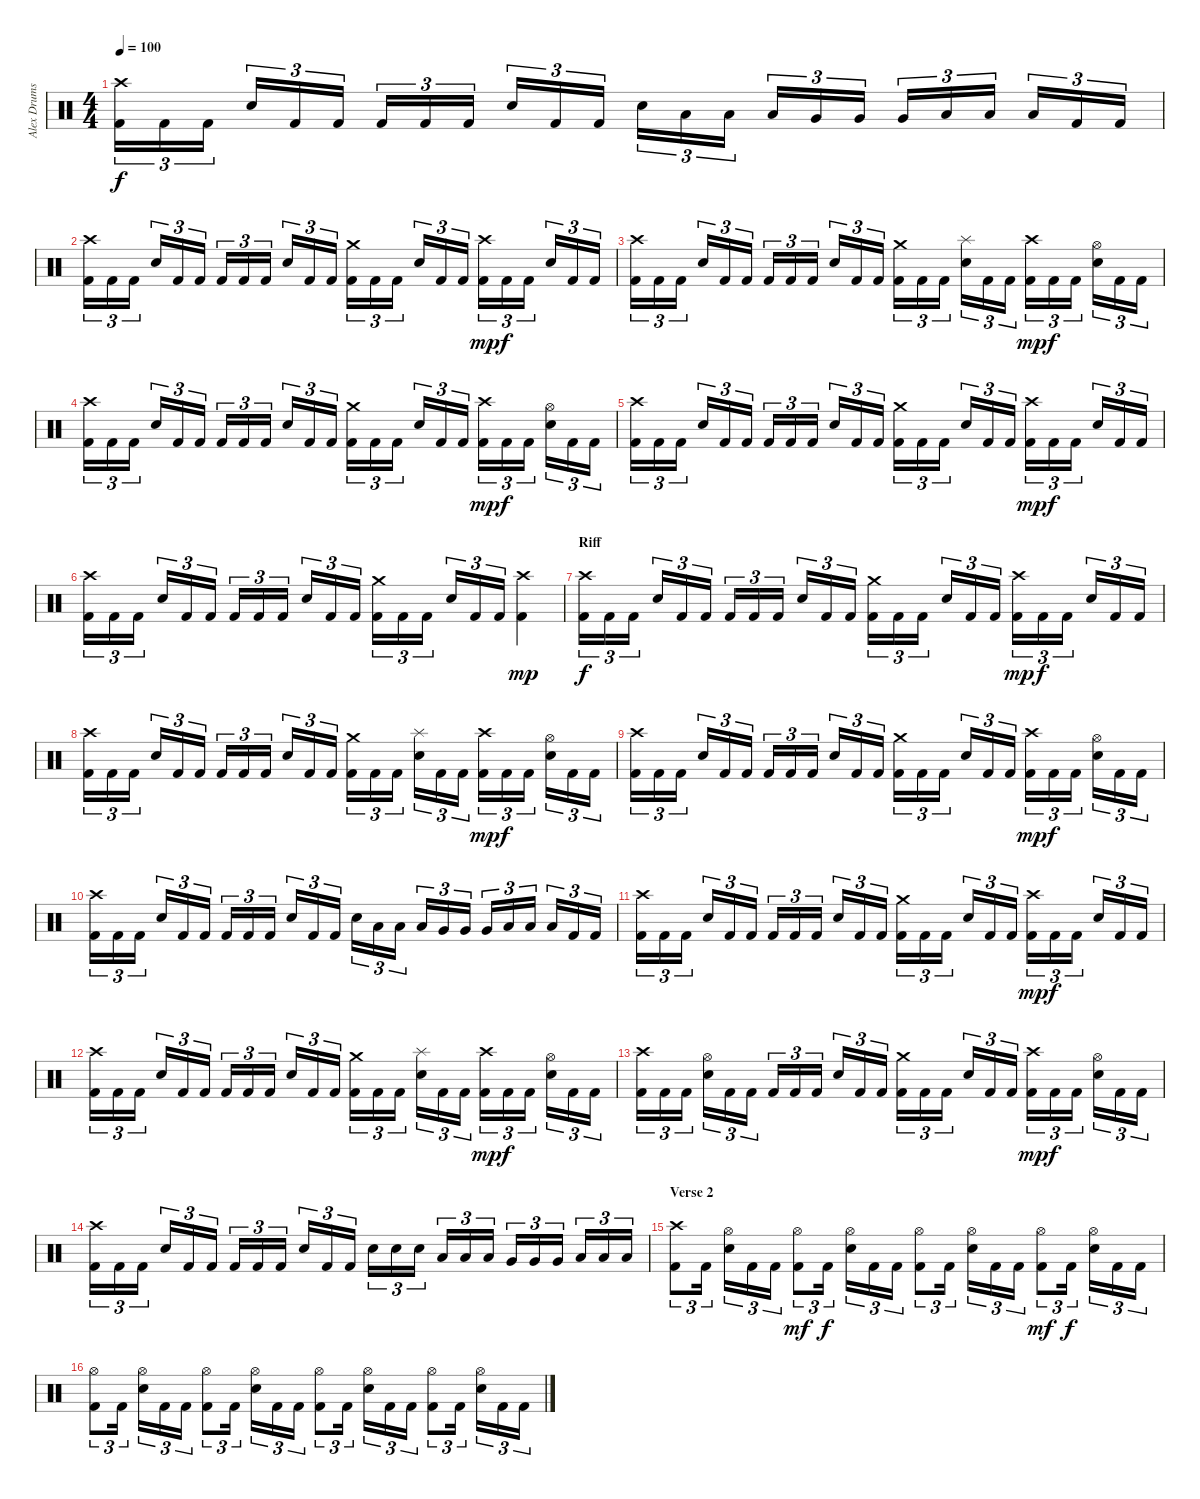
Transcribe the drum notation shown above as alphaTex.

\track ("Alex Drums" "Alex Drums") {instrument percussion}
\staff {score}
\articulation defaults
\ts (4 4)
\tempo 100
\clef neutral
\ks c
("Crash high (hit)" "Kick (hit) 2").16{tu (3 2) dy f} "Kick (hit) 2".16{tu (3 2)} "Kick (hit) 2".16{tu (3 2)} "Electric Snare (hit)".16{tu (3 2)} "Kick (hit) 2".16{tu (3 2)} "Kick (hit) 2".16{tu (3 2)} "Kick (hit) 2".16{tu (3 2)} "Kick (hit) 2".16{tu (3 2)} "Kick (hit) 2".16{tu (3 2)} "Electric Snare (hit)".16{tu (3 2)} "Kick (hit) 2".16{tu (3 2)} "Kick (hit) 2".16{tu (3 2)} "Electric Snare (hit)".16{tu (3 2)} "Low Tom (hit)".16{tu (3 2)} "Low Tom (hit)".16{tu (3 2)} "Low Tom (hit)".16{tu (3 2)} "Very Low Tom (hit)".16{tu (3 2)} "Very Low Tom (hit)".16{tu (3 2)} "Very Low Tom (hit)".16{tu (3 2)} "Low Floor Tom (hit)".16{tu (3 2)} "Low Floor Tom (hit)".16{tu (3 2)} "Low Floor Tom (hit)".16{tu (3 2)} "Kick (hit) 2".16{tu (3 2)} "Kick (hit) 2".16{tu (3 2)} |
("Crash high (hit)" "Kick (hit) 2").16{tu (3 2)} "Kick (hit) 2".16{tu (3 2)} "Kick (hit) 2".16{tu (3 2)} "Electric Snare (hit)".16{tu (3 2)} "Kick (hit) 2".16{tu (3 2)} "Kick (hit) 2".16{tu (3 2)} "Kick (hit) 2".16{tu (3 2)} "Kick (hit) 2".16{tu (3 2)} "Kick (hit) 2".16{tu (3 2)} "Electric Snare (hit)".16{tu (3 2)} "Kick (hit) 2".16{tu (3 2)} "Kick (hit) 2".16{tu (3 2)} ("Crash medium (hit)" "Kick (hit) 2").16{tu (3 2)} "Kick (hit) 2".16{tu (3 2)} "Kick (hit) 2".16{tu (3 2)} "Electric Snare (hit)".16{tu (3 2)} "Kick (hit) 2".16{tu (3 2)} "Kick (hit) 2".16{tu (3 2)} ("Crash high (hit)" "Kick (hit) 2").16{tu (3 2) dy mp} "Kick (hit) 2".16{tu (3 2) dy f} "Kick (hit) 2".16{tu (3 2)} "Electric Snare (hit)".16{tu (3 2)} "Kick (hit) 2".16{tu (3 2)} "Kick (hit) 2".16{tu (3 2)} |
("Crash high (hit)" "Kick (hit) 2").16{tu (3 2)} "Kick (hit) 2".16{tu (3 2)} "Kick (hit) 2".16{tu (3 2)} "Electric Snare (hit)".16{tu (3 2)} "Kick (hit) 2".16{tu (3 2)} "Kick (hit) 2".16{tu (3 2)} "Kick (hit) 2".16{tu (3 2)} "Kick (hit) 2".16{tu (3 2)} "Kick (hit) 2".16{tu (3 2)} "Electric Snare (hit)".16{tu (3 2)} "Kick (hit) 2".16{tu (3 2)} "Kick (hit) 2".16{tu (3 2)} ("Crash medium (hit)" "Kick (hit) 2").16{tu (3 2)} "Kick (hit) 2".16{tu (3 2)} "Kick (hit) 2".16{tu (3 2)} ("Splash (hit)" "Electric Snare (hit)").16{tu (3 2)} "Kick (hit) 2".16{tu (3 2)} "Kick (hit) 2".16{tu (3 2)} ("Crash high (hit)" "Kick (hit) 2").16{tu (3 2) dy mp} "Kick (hit) 2".16{tu (3 2) dy f} "Kick (hit) 2".16{tu (3 2)} ("Hi-Hat (open)" "Electric Snare (hit)").16{tu (3 2)} "Kick (hit) 2".16{tu (3 2)} "Kick (hit) 2".16{tu (3 2)} |
("Crash high (hit)" "Kick (hit) 2").16{tu (3 2)} "Kick (hit) 2".16{tu (3 2)} "Kick (hit) 2".16{tu (3 2)} "Electric Snare (hit)".16{tu (3 2)} "Kick (hit) 2".16{tu (3 2)} "Kick (hit) 2".16{tu (3 2)} "Kick (hit) 2".16{tu (3 2)} "Kick (hit) 2".16{tu (3 2)} "Kick (hit) 2".16{tu (3 2)} "Electric Snare (hit)".16{tu (3 2)} "Kick (hit) 2".16{tu (3 2)} "Kick (hit) 2".16{tu (3 2)} ("Crash medium (hit)" "Kick (hit) 2").16{tu (3 2)} "Kick (hit) 2".16{tu (3 2)} "Kick (hit) 2".16{tu (3 2)} "Electric Snare (hit)".16{tu (3 2)} "Kick (hit) 2".16{tu (3 2)} "Kick (hit) 2".16{tu (3 2)} ("Crash high (hit)" "Kick (hit) 2").16{tu (3 2) dy mp} "Kick (hit) 2".16{tu (3 2) dy f} "Kick (hit) 2".16{tu (3 2)} ("Hi-Hat (open)" "Electric Snare (hit)").16{tu (3 2)} "Kick (hit) 2".16{tu (3 2)} "Kick (hit) 2".16{tu (3 2)} |
("Crash high (hit)" "Kick (hit) 2").16{tu (3 2)} "Kick (hit) 2".16{tu (3 2)} "Kick (hit) 2".16{tu (3 2)} "Electric Snare (hit)".16{tu (3 2)} "Kick (hit) 2".16{tu (3 2)} "Kick (hit) 2".16{tu (3 2)} "Kick (hit) 2".16{tu (3 2)} "Kick (hit) 2".16{tu (3 2)} "Kick (hit) 2".16{tu (3 2)} "Electric Snare (hit)".16{tu (3 2)} "Kick (hit) 2".16{tu (3 2)} "Kick (hit) 2".16{tu (3 2)} ("Crash medium (hit)" "Kick (hit) 2").16{tu (3 2)} "Kick (hit) 2".16{tu (3 2)} "Kick (hit) 2".16{tu (3 2)} "Electric Snare (hit)".16{tu (3 2)} "Kick (hit) 2".16{tu (3 2)} "Kick (hit) 2".16{tu (3 2)} ("Crash high (hit)" "Kick (hit) 2").16{tu (3 2) dy mp} "Kick (hit) 2".16{tu (3 2) dy f} "Kick (hit) 2".16{tu (3 2)} "Electric Snare (hit)".16{tu (3 2)} "Kick (hit) 2".16{tu (3 2)} "Kick (hit) 2".16{tu (3 2)} |
("Crash high (hit)" "Kick (hit) 2").16{tu (3 2)} "Kick (hit) 2".16{tu (3 2)} "Kick (hit) 2".16{tu (3 2)} "Electric Snare (hit)".16{tu (3 2)} "Kick (hit) 2".16{tu (3 2)} "Kick (hit) 2".16{tu (3 2)} "Kick (hit) 2".16{tu (3 2)} "Kick (hit) 2".16{tu (3 2)} "Kick (hit) 2".16{tu (3 2)} "Electric Snare (hit)".16{tu (3 2)} "Kick (hit) 2".16{tu (3 2)} "Kick (hit) 2".16{tu (3 2)} ("Crash medium (hit)" "Kick (hit) 2").16{tu (3 2)} "Kick (hit) 2".16{tu (3 2)} "Kick (hit) 2".16{tu (3 2)} "Electric Snare (hit)".16{tu (3 2)} "Kick (hit) 2".16{tu (3 2)} "Kick (hit) 2".16{tu (3 2)} ("Crash high (hit)" "Kick (hit) 2").4{dy mp} |
\section ("" "Riff")
("Crash high (hit)" "Kick (hit) 2").16{tu (3 2) dy f} "Kick (hit) 2".16{tu (3 2)} "Kick (hit) 2".16{tu (3 2)} "Electric Snare (hit)".16{tu (3 2)} "Kick (hit) 2".16{tu (3 2)} "Kick (hit) 2".16{tu (3 2)} "Kick (hit) 2".16{tu (3 2)} "Kick (hit) 2".16{tu (3 2)} "Kick (hit) 2".16{tu (3 2)} "Electric Snare (hit)".16{tu (3 2)} "Kick (hit) 2".16{tu (3 2)} "Kick (hit) 2".16{tu (3 2)} ("Crash medium (hit)" "Kick (hit) 2").16{tu (3 2)} "Kick (hit) 2".16{tu (3 2)} "Kick (hit) 2".16{tu (3 2)} "Electric Snare (hit)".16{tu (3 2)} "Kick (hit) 2".16{tu (3 2)} "Kick (hit) 2".16{tu (3 2)} ("Crash high (hit)" "Kick (hit) 2").16{tu (3 2) dy mp} "Kick (hit) 2".16{tu (3 2) dy f} "Kick (hit) 2".16{tu (3 2)} "Electric Snare (hit)".16{tu (3 2)} "Kick (hit) 2".16{tu (3 2)} "Kick (hit) 2".16{tu (3 2)} |
("Crash high (hit)" "Kick (hit) 2").16{tu (3 2)} "Kick (hit) 2".16{tu (3 2)} "Kick (hit) 2".16{tu (3 2)} "Electric Snare (hit)".16{tu (3 2)} "Kick (hit) 2".16{tu (3 2)} "Kick (hit) 2".16{tu (3 2)} "Kick (hit) 2".16{tu (3 2)} "Kick (hit) 2".16{tu (3 2)} "Kick (hit) 2".16{tu (3 2)} "Electric Snare (hit)".16{tu (3 2)} "Kick (hit) 2".16{tu (3 2)} "Kick (hit) 2".16{tu (3 2)} ("Crash medium (hit)" "Kick (hit) 2").16{tu (3 2)} "Kick (hit) 2".16{tu (3 2)} "Kick (hit) 2".16{tu (3 2)} ("Splash (hit)" "Electric Snare (hit)").16{tu (3 2)} "Kick (hit) 2".16{tu (3 2)} "Kick (hit) 2".16{tu (3 2)} ("Crash high (hit)" "Kick (hit) 2").16{tu (3 2) dy mp} "Kick (hit) 2".16{tu (3 2) dy f} "Kick (hit) 2".16{tu (3 2)} ("Hi-Hat (open)" "Electric Snare (hit)").16{tu (3 2)} "Kick (hit) 2".16{tu (3 2)} "Kick (hit) 2".16{tu (3 2)} |
("Crash high (hit)" "Kick (hit) 2").16{tu (3 2)} "Kick (hit) 2".16{tu (3 2)} "Kick (hit) 2".16{tu (3 2)} "Electric Snare (hit)".16{tu (3 2)} "Kick (hit) 2".16{tu (3 2)} "Kick (hit) 2".16{tu (3 2)} "Kick (hit) 2".16{tu (3 2)} "Kick (hit) 2".16{tu (3 2)} "Kick (hit) 2".16{tu (3 2)} "Electric Snare (hit)".16{tu (3 2)} "Kick (hit) 2".16{tu (3 2)} "Kick (hit) 2".16{tu (3 2)} ("Crash medium (hit)" "Kick (hit) 2").16{tu (3 2)} "Kick (hit) 2".16{tu (3 2)} "Kick (hit) 2".16{tu (3 2)} "Electric Snare (hit)".16{tu (3 2)} "Kick (hit) 2".16{tu (3 2)} "Kick (hit) 2".16{tu (3 2)} ("Crash high (hit)" "Kick (hit) 2").16{tu (3 2) dy mp} "Kick (hit) 2".16{tu (3 2) dy f} "Kick (hit) 2".16{tu (3 2)} ("Hi-Hat (open)" "Electric Snare (hit)").16{tu (3 2)} "Kick (hit) 2".16{tu (3 2)} "Kick (hit) 2".16{tu (3 2)} |
("Crash high (hit)" "Kick (hit) 2").16{tu (3 2)} "Kick (hit) 2".16{tu (3 2)} "Kick (hit) 2".16{tu (3 2)} "Electric Snare (hit)".16{tu (3 2)} "Kick (hit) 2".16{tu (3 2)} "Kick (hit) 2".16{tu (3 2)} "Kick (hit) 2".16{tu (3 2)} "Kick (hit) 2".16{tu (3 2)} "Kick (hit) 2".16{tu (3 2)} "Electric Snare (hit)".16{tu (3 2)} "Kick (hit) 2".16{tu (3 2)} "Kick (hit) 2".16{tu (3 2)} "Electric Snare (hit)".16{tu (3 2)} "Low Tom (hit)".16{tu (3 2)} "Low Tom (hit)".16{tu (3 2)} "Low Tom (hit)".16{tu (3 2)} "Very Low Tom (hit)".16{tu (3 2)} "Very Low Tom (hit)".16{tu (3 2)} "Very Low Tom (hit)".16{tu (3 2)} "Low Floor Tom (hit)".16{tu (3 2)} "Low Floor Tom (hit)".16{tu (3 2)} "Low Floor Tom (hit)".16{tu (3 2)} "Kick (hit) 2".16{tu (3 2)} "Kick (hit) 2".16{tu (3 2)} |
("Crash high (hit)" "Kick (hit) 2").16{tu (3 2)} "Kick (hit) 2".16{tu (3 2)} "Kick (hit) 2".16{tu (3 2)} "Electric Snare (hit)".16{tu (3 2)} "Kick (hit) 2".16{tu (3 2)} "Kick (hit) 2".16{tu (3 2)} "Kick (hit) 2".16{tu (3 2)} "Kick (hit) 2".16{tu (3 2)} "Kick (hit) 2".16{tu (3 2)} "Electric Snare (hit)".16{tu (3 2)} "Kick (hit) 2".16{tu (3 2)} "Kick (hit) 2".16{tu (3 2)} ("Crash medium (hit)" "Kick (hit) 2").16{tu (3 2)} "Kick (hit) 2".16{tu (3 2)} "Kick (hit) 2".16{tu (3 2)} "Electric Snare (hit)".16{tu (3 2)} "Kick (hit) 2".16{tu (3 2)} "Kick (hit) 2".16{tu (3 2)} ("Crash high (hit)" "Kick (hit) 2").16{tu (3 2) dy mp} "Kick (hit) 2".16{tu (3 2) dy f} "Kick (hit) 2".16{tu (3 2)} "Electric Snare (hit)".16{tu (3 2)} "Kick (hit) 2".16{tu (3 2)} "Kick (hit) 2".16{tu (3 2)} |
("Crash high (hit)" "Kick (hit) 2").16{tu (3 2)} "Kick (hit) 2".16{tu (3 2)} "Kick (hit) 2".16{tu (3 2)} "Electric Snare (hit)".16{tu (3 2)} "Kick (hit) 2".16{tu (3 2)} "Kick (hit) 2".16{tu (3 2)} "Kick (hit) 2".16{tu (3 2)} "Kick (hit) 2".16{tu (3 2)} "Kick (hit) 2".16{tu (3 2)} "Electric Snare (hit)".16{tu (3 2)} "Kick (hit) 2".16{tu (3 2)} "Kick (hit) 2".16{tu (3 2)} ("Crash medium (hit)" "Kick (hit) 2").16{tu (3 2)} "Kick (hit) 2".16{tu (3 2)} "Kick (hit) 2".16{tu (3 2)} ("Splash (hit)" "Electric Snare (hit)").16{tu (3 2)} "Kick (hit) 2".16{tu (3 2)} "Kick (hit) 2".16{tu (3 2)} ("Crash high (hit)" "Kick (hit) 2").16{tu (3 2) dy mp} "Kick (hit) 2".16{tu (3 2) dy f} "Kick (hit) 2".16{tu (3 2)} ("Hi-Hat (open)" "Electric Snare (hit)").16{tu (3 2)} "Kick (hit) 2".16{tu (3 2)} "Kick (hit) 2".16{tu (3 2)} |
("Crash high (hit)" "Kick (hit) 2").16{tu (3 2)} "Kick (hit) 2".16{tu (3 2)} "Kick (hit) 2".16{tu (3 2)} ("Hi-Hat (open)" "Electric Snare (hit)").16{tu (3 2)} "Kick (hit) 2".16{tu (3 2)} "Kick (hit) 2".16{tu (3 2)} "Kick (hit) 2".16{tu (3 2)} "Kick (hit) 2".16{tu (3 2)} "Kick (hit) 2".16{tu (3 2)} "Electric Snare (hit)".16{tu (3 2)} "Kick (hit) 2".16{tu (3 2)} "Kick (hit) 2".16{tu (3 2)} ("Crash medium (hit)" "Kick (hit) 2").16{tu (3 2)} "Kick (hit) 2".16{tu (3 2)} "Kick (hit) 2".16{tu (3 2)} "Electric Snare (hit)".16{tu (3 2)} "Kick (hit) 2".16{tu (3 2)} "Kick (hit) 2".16{tu (3 2)} ("Crash high (hit)" "Kick (hit) 2").16{tu (3 2) dy mp} "Kick (hit) 2".16{tu (3 2) dy f} "Kick (hit) 2".16{tu (3 2)} ("Hi-Hat (open)" "Electric Snare (hit)").16{tu (3 2)} "Kick (hit) 2".16{tu (3 2)} "Kick (hit) 2".16{tu (3 2)} |
("Crash high (hit)" "Kick (hit) 2").16{tu (3 2)} "Kick (hit) 2".16{tu (3 2)} "Kick (hit) 2".16{tu (3 2)} "Electric Snare (hit)".16{tu (3 2)} "Kick (hit) 2".16{tu (3 2)} "Kick (hit) 2".16{tu (3 2)} "Kick (hit) 2".16{tu (3 2)} "Kick (hit) 2".16{tu (3 2)} "Kick (hit) 2".16{tu (3 2)} "Electric Snare (hit)".16{tu (3 2)} "Kick (hit) 2".16{tu (3 2)} "Kick (hit) 2".16{tu (3 2)} "Electric Snare (hit)".16{tu (3 2)} "Electric Snare (hit)".16{tu (3 2)} "Electric Snare (hit)".16{tu (3 2)} "Low Tom (hit)".16{tu (3 2)} "Low Tom (hit)".16{tu (3 2)} "Low Tom (hit)".16{tu (3 2)} "Very Low Tom (hit)".16{tu (3 2)} "Very Low Tom (hit)".16{tu (3 2)} "Very Low Tom (hit)".16{tu (3 2)} "Low Floor Tom (hit)".16{tu (3 2)} "Low Floor Tom (hit)".16{tu (3 2)} "Low Floor Tom (hit)".16{tu (3 2)} |
\section ("" "Verse 2")
("Crash high (hit)" "Kick (hit) 2").8{tu (3 2)} "Kick (hit) 2".16{tu (3 2)} ("Hi-Hat (open)" "Electric Snare (hit)").16{tu (3 2)} "Kick (hit) 2".16{tu (3 2)} "Kick (hit) 2".16{tu (3 2)} ("Hi-Hat (open)" "Kick (hit) 2").8{tu (3 2) dy mf} "Kick (hit) 2".16{tu (3 2) dy f} ("Hi-Hat (open)" "Electric Snare (hit)").16{tu (3 2)} "Kick (hit) 2".16{tu (3 2)} "Kick (hit) 2".16{tu (3 2)} ("Hi-Hat (open)" "Kick (hit) 2").8{tu (3 2)} "Kick (hit) 2".16{tu (3 2)} ("Hi-Hat (open)" "Electric Snare (hit)").16{tu (3 2)} "Kick (hit) 2".16{tu (3 2)} "Kick (hit) 2".16{tu (3 2)} ("Hi-Hat (open)" "Kick (hit) 2").8{tu (3 2) dy mf} "Kick (hit) 2".16{tu (3 2) dy f} ("Hi-Hat (open)" "Electric Snare (hit)").16{tu (3 2)} "Kick (hit) 2".16{tu (3 2)} "Kick (hit) 2".16{tu (3 2)} |
("Hi-Hat (open)" "Kick (hit) 2").8{tu (3 2)} "Kick (hit) 2".16{tu (3 2)} ("Hi-Hat (open)" "Electric Snare (hit)").16{tu (3 2)} "Kick (hit) 2".16{tu (3 2)} "Kick (hit) 2".16{tu (3 2)} ("Hi-Hat (open)" "Kick (hit) 2").8{tu (3 2)} "Kick (hit) 2".16{tu (3 2)} ("Hi-Hat (open)" "Electric Snare (hit)").16{tu (3 2)} "Kick (hit) 2".16{tu (3 2)} "Kick (hit) 2".16{tu (3 2)} ("Hi-Hat (open)" "Kick (hit) 2").8{tu (3 2)} "Kick (hit) 2".16{tu (3 2)} ("Hi-Hat (open)" "Electric Snare (hit)").16{tu (3 2)} "Kick (hit) 2".16{tu (3 2)} "Kick (hit) 2".16{tu (3 2)} ("Hi-Hat (open)" "Kick (hit) 2").8{tu (3 2)} "Kick (hit) 2".16{tu (3 2)} ("Hi-Hat (open)" "Electric Snare (hit)").16{tu (3 2)} "Kick (hit) 2".16{tu (3 2)} "Kick (hit) 2".16{tu (3 2)}
